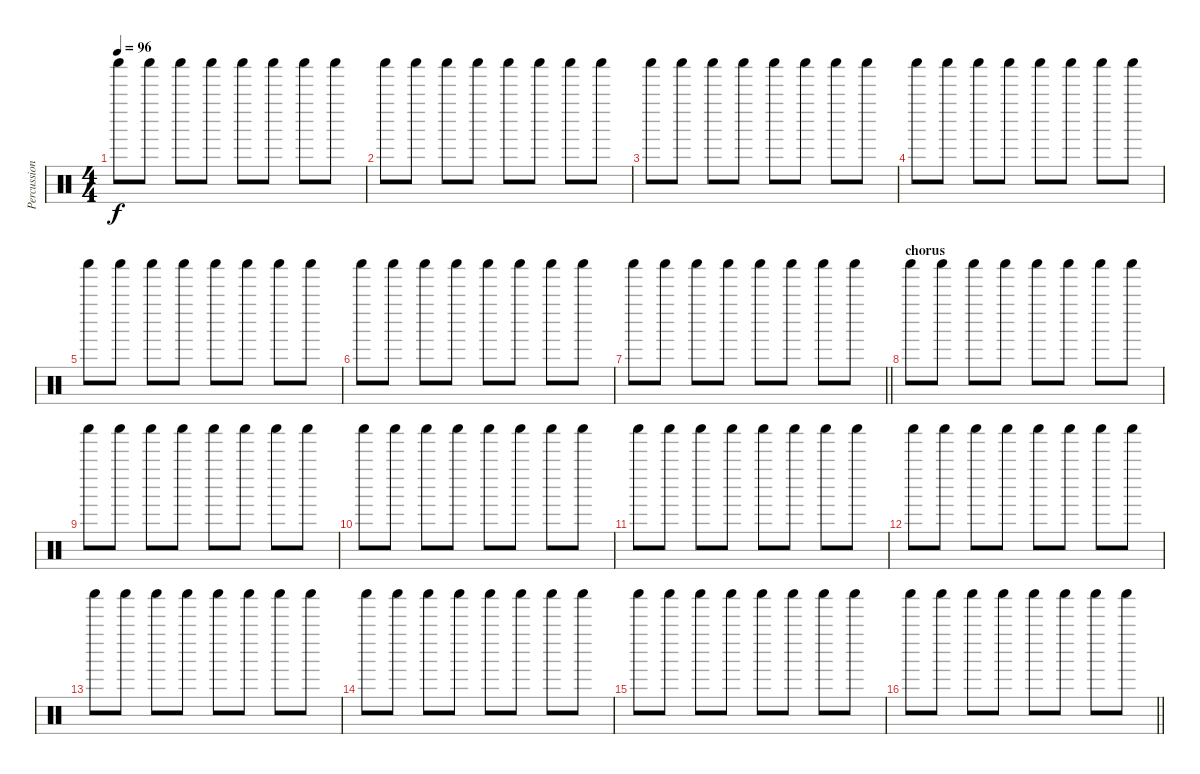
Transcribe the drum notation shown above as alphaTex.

\track ("Percussion" "Percussion") {instrument percussion}
\staff {score}
\articulation defaults
\ts (4 4)
\tempo 96
\clef neutral
\ks c "Shaker (hit)".8{dy f} "Shaker (hit)".8 "Shaker (hit)".8 "Shaker (hit)".8 "Shaker (hit)".8 "Shaker (hit)".8 "Shaker (hit)".8 "Shaker (hit)".8
|
"Shaker (hit)".8 "Shaker (hit)".8 "Shaker (hit)".8 "Shaker (hit)".8 "Shaker (hit)".8 "Shaker (hit)".8 "Shaker (hit)".8 "Shaker (hit)".8 |
"Shaker (hit)".8 "Shaker (hit)".8 "Shaker (hit)".8 "Shaker (hit)".8 "Shaker (hit)".8 "Shaker (hit)".8 "Shaker (hit)".8 "Shaker (hit)".8 |
"Shaker (hit)".8 "Shaker (hit)".8 "Shaker (hit)".8 "Shaker (hit)".8 "Shaker (hit)".8 "Shaker (hit)".8 "Shaker (hit)".8 "Shaker (hit)".8 |
"Shaker (hit)".8 "Shaker (hit)".8 "Shaker (hit)".8 "Shaker (hit)".8 "Shaker (hit)".8 "Shaker (hit)".8 "Shaker (hit)".8 "Shaker (hit)".8 |
"Shaker (hit)".8 "Shaker (hit)".8 "Shaker (hit)".8 "Shaker (hit)".8 "Shaker (hit)".8 "Shaker (hit)".8 "Shaker (hit)".8 "Shaker (hit)".8 |
\barLineRight lightlight "Shaker (hit)".8 "Shaker (hit)".8 "Shaker (hit)".8 "Shaker (hit)".8 "Shaker (hit)".8 "Shaker (hit)".8 "Shaker (hit)".8 "Shaker (hit)".8
|
\section ("" "chorus")
"Shaker (hit)".8 "Shaker (hit)".8 "Shaker (hit)".8 "Shaker (hit)".8 "Shaker (hit)".8 "Shaker (hit)".8 "Shaker (hit)".8 "Shaker (hit)".8 |
"Shaker (hit)".8 "Shaker (hit)".8 "Shaker (hit)".8 "Shaker (hit)".8 "Shaker (hit)".8 "Shaker (hit)".8 "Shaker (hit)".8 "Shaker (hit)".8 |
"Shaker (hit)".8 "Shaker (hit)".8 "Shaker (hit)".8 "Shaker (hit)".8 "Shaker (hit)".8 "Shaker (hit)".8 "Shaker (hit)".8 "Shaker (hit)".8 |
"Shaker (hit)".8 "Shaker (hit)".8 "Shaker (hit)".8 "Shaker (hit)".8 "Shaker (hit)".8 "Shaker (hit)".8 "Shaker (hit)".8 "Shaker (hit)".8 |
"Shaker (hit)".8 "Shaker (hit)".8 "Shaker (hit)".8 "Shaker (hit)".8 "Shaker (hit)".8 "Shaker (hit)".8 "Shaker (hit)".8 "Shaker (hit)".8 |
"Shaker (hit)".8 "Shaker (hit)".8 "Shaker (hit)".8 "Shaker (hit)".8 "Shaker (hit)".8 "Shaker (hit)".8 "Shaker (hit)".8 "Shaker (hit)".8 |
"Shaker (hit)".8 "Shaker (hit)".8 "Shaker (hit)".8 "Shaker (hit)".8 "Shaker (hit)".8 "Shaker (hit)".8 "Shaker (hit)".8 "Shaker (hit)".8 |
"Shaker (hit)".8 "Shaker (hit)".8 "Shaker (hit)".8 "Shaker (hit)".8 "Shaker (hit)".8 "Shaker (hit)".8 "Shaker (hit)".8 "Shaker (hit)".8 |
\barLineRight lightlight "Shaker (hit)".8 "Shaker (hit)".8 "Shaker (hit)".8 "Shaker (hit)".8 "Shaker (hit)".8 "Shaker (hit)".8 "Shaker (hit)".8 "Shaker (hit)".8
